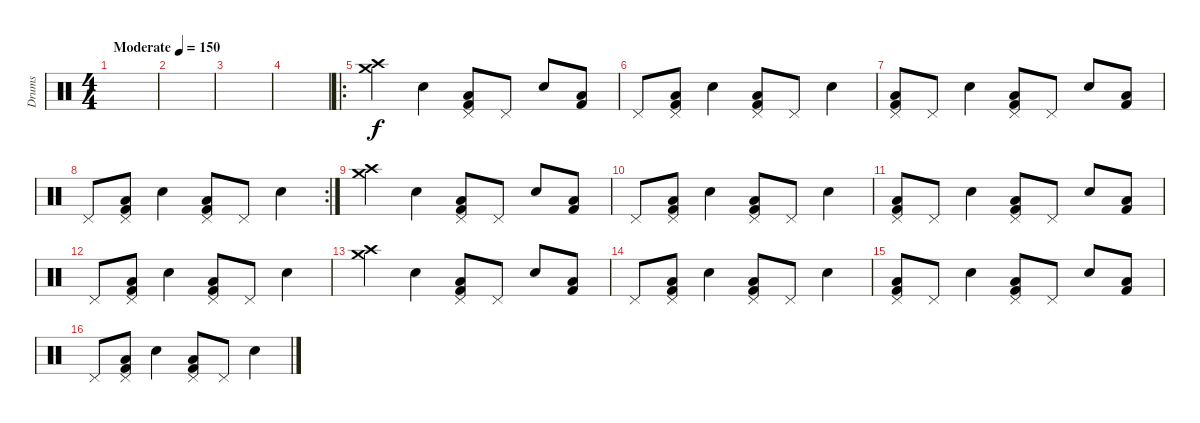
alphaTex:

\track ("Drums" "Drums") {instrument percussion}
\staff {score}
\articulation defaults
\ts (4 4)
\tempo (150 "Moderate")
\clef neutral
\ks c
|
|
|
|
\ro
("Crash high (hit)" "Crash medium (hit)").4 "Snare (hit) 2".4 ("Pedal Hi-Hat (hit)" "Low Floor Tom (hit)" "Kick (hit) 2").8 "Pedal Hi-Hat (hit)".8 "Snare (hit) 2".8 ("Low Floor Tom (hit)" "Kick (hit) 2").8 |
"Pedal Hi-Hat (hit)".8 ("Pedal Hi-Hat (hit)" "Low Floor Tom (hit)" "Kick (hit) 2").8 "Snare (hit) 2".4 ("Pedal Hi-Hat (hit)" "Low Floor Tom (hit)" "Kick (hit) 2").8 "Pedal Hi-Hat (hit)".8 "Snare (hit) 2".4 |
("Pedal Hi-Hat (hit)" "Low Floor Tom (hit)" "Kick (hit) 2").8 "Pedal Hi-Hat (hit)".8 "Snare (hit) 2".4 ("Pedal Hi-Hat (hit)" "Low Floor Tom (hit)" "Kick (hit) 2").8 "Pedal Hi-Hat (hit)".8 "Snare (hit) 2".8 ("Low Floor Tom (hit)" "Kick (hit) 2").8 |
\rc 2 "Pedal Hi-Hat (hit)".8
("Pedal Hi-Hat (hit)" "Low Floor Tom (hit)" "Kick (hit) 2").8 "Snare (hit) 2".4 ("Pedal Hi-Hat (hit)" "Low Floor Tom (hit)" "Kick (hit) 2").8 "Pedal Hi-Hat (hit)".8 "Snare (hit) 2".4 |
("Crash high (hit)" "Crash medium (hit)").4 "Snare (hit) 2".4 ("Pedal Hi-Hat (hit)" "Low Floor Tom (hit)" "Kick (hit) 2").8 "Pedal Hi-Hat (hit)".8 "Snare (hit) 2".8 ("Low Floor Tom (hit)" "Kick (hit) 2").8 |
"Pedal Hi-Hat (hit)".8 ("Pedal Hi-Hat (hit)" "Low Floor Tom (hit)" "Kick (hit) 2").8 "Snare (hit) 2".4 ("Pedal Hi-Hat (hit)" "Low Floor Tom (hit)" "Kick (hit) 2").8 "Pedal Hi-Hat (hit)".8 "Snare (hit) 2".4 |
("Pedal Hi-Hat (hit)" "Low Floor Tom (hit)" "Kick (hit) 2").8 "Pedal Hi-Hat (hit)".8 "Snare (hit) 2".4 ("Pedal Hi-Hat (hit)" "Low Floor Tom (hit)" "Kick (hit) 2").8 "Pedal Hi-Hat (hit)".8 "Snare (hit) 2".8 ("Low Floor Tom (hit)" "Kick (hit) 2").8 |
"Pedal Hi-Hat (hit)".8 ("Pedal Hi-Hat (hit)" "Low Floor Tom (hit)" "Kick (hit) 2").8 "Snare (hit) 2".4 ("Pedal Hi-Hat (hit)" "Low Floor Tom (hit)" "Kick (hit) 2").8 "Pedal Hi-Hat (hit)".8 "Snare (hit) 2".4 |
("Crash high (hit)" "Crash medium (hit)").4 "Snare (hit) 2".4 ("Pedal Hi-Hat (hit)" "Low Floor Tom (hit)" "Kick (hit) 2").8 "Pedal Hi-Hat (hit)".8 "Snare (hit) 2".8 ("Low Floor Tom (hit)" "Kick (hit) 2").8 |
"Pedal Hi-Hat (hit)".8 ("Pedal Hi-Hat (hit)" "Low Floor Tom (hit)" "Kick (hit) 2").8 "Snare (hit) 2".4 ("Pedal Hi-Hat (hit)" "Low Floor Tom (hit)" "Kick (hit) 2").8 "Pedal Hi-Hat (hit)".8 "Snare (hit) 2".4 |
("Pedal Hi-Hat (hit)" "Low Floor Tom (hit)" "Kick (hit) 2").8 "Pedal Hi-Hat (hit)".8 "Snare (hit) 2".4 ("Pedal Hi-Hat (hit)" "Low Floor Tom (hit)" "Kick (hit) 2").8 "Pedal Hi-Hat (hit)".8 "Snare (hit) 2".8 ("Low Floor Tom (hit)" "Kick (hit) 2").8 |
"Pedal Hi-Hat (hit)".8 ("Pedal Hi-Hat (hit)" "Low Floor Tom (hit)" "Kick (hit) 2").8 "Snare (hit) 2".4 ("Pedal Hi-Hat (hit)" "Low Floor Tom (hit)" "Kick (hit) 2").8 "Pedal Hi-Hat (hit)".8 "Snare (hit) 2".4
